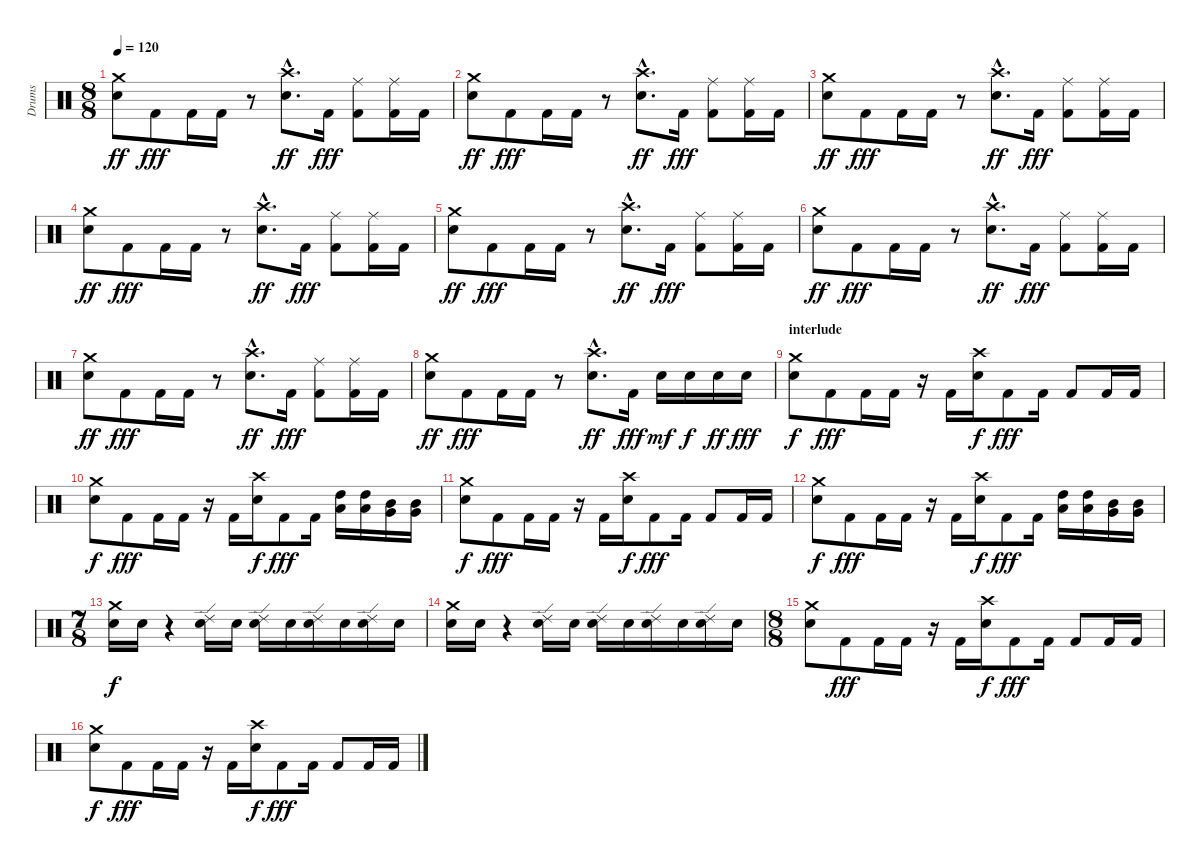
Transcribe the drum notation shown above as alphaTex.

\track ("Drums" "Drums") {instrument percussion}
\staff {score}
\articulation defaults
\ts (8 8)
\tempo 120
\clef neutral
\ks c
("Crash medium (hit)" "Electric Snare (hit)").8{dy ff} "Kick (hit) 2".8{dy fff} "Kick (hit) 2".16 "Kick (hit) 2".16 r.8 ("Crash high (hit)"{hac} "Electric Snare (hit)"{hac}).8{d dy ff} "Kick (hit) 2".16{dy fff} ("Ride (middle)" "Kick (hit) 2").8 ("Ride (middle)" "Kick (hit) 2").16 "Kick (hit) 2".16 |
("Crash medium (hit)" "Electric Snare (hit)").8{dy ff} "Kick (hit) 2".8{dy fff} "Kick (hit) 2".16 "Kick (hit) 2".16 r.8 ("Crash high (hit)"{hac} "Electric Snare (hit)"{hac}).8{d dy ff} "Kick (hit) 2".16{dy fff} ("Ride (middle)" "Kick (hit) 2").8 ("Ride (middle)" "Kick (hit) 2").16 "Kick (hit) 2".16 |
("Crash medium (hit)" "Electric Snare (hit)").8{dy ff} "Kick (hit) 2".8{dy fff} "Kick (hit) 2".16 "Kick (hit) 2".16 r.8 ("Crash high (hit)"{hac} "Electric Snare (hit)"{hac}).8{d dy ff} "Kick (hit) 2".16{dy fff} ("Ride (middle)" "Kick (hit) 2").8 ("Ride (middle)" "Kick (hit) 2").16 "Kick (hit) 2".16 |
("Crash medium (hit)" "Electric Snare (hit)").8{dy ff} "Kick (hit) 2".8{dy fff} "Kick (hit) 2".16 "Kick (hit) 2".16 r.8 ("Crash high (hit)"{hac} "Electric Snare (hit)"{hac}).8{d dy ff} "Kick (hit) 2".16{dy fff} ("Ride (middle)" "Kick (hit) 2").8 ("Ride (middle)" "Kick (hit) 2").16 "Kick (hit) 2".16 |
("Crash medium (hit)" "Electric Snare (hit)").8{dy ff} "Kick (hit) 2".8{dy fff} "Kick (hit) 2".16 "Kick (hit) 2".16 r.8 ("Crash high (hit)"{hac} "Electric Snare (hit)"{hac}).8{d dy ff} "Kick (hit) 2".16{dy fff} ("Ride (middle)" "Kick (hit) 2").8 ("Ride (middle)" "Kick (hit) 2").16 "Kick (hit) 2".16 |
("Crash medium (hit)" "Electric Snare (hit)").8{dy ff} "Kick (hit) 2".8{dy fff} "Kick (hit) 2".16 "Kick (hit) 2".16 r.8 ("Crash high (hit)"{hac} "Electric Snare (hit)"{hac}).8{d dy ff} "Kick (hit) 2".16{dy fff} ("Ride (middle)" "Kick (hit) 2").8 ("Ride (middle)" "Kick (hit) 2").16 "Kick (hit) 2".16 |
("Crash medium (hit)" "Electric Snare (hit)").8{dy ff} "Kick (hit) 2".8{dy fff} "Kick (hit) 2".16 "Kick (hit) 2".16 r.8 ("Crash high (hit)"{hac} "Electric Snare (hit)"{hac}).8{d dy ff} "Kick (hit) 2".16{dy fff} ("Ride (middle)" "Kick (hit) 2").8 ("Ride (middle)" "Kick (hit) 2").16 "Kick (hit) 2".16 |
("Crash medium (hit)" "Electric Snare (hit)").8{dy ff} "Kick (hit) 2".8{dy fff} "Kick (hit) 2".16 "Kick (hit) 2".16 r.8 ("Crash high (hit)"{hac} "Electric Snare (hit)"{hac}).8{d dy ff} "Kick (hit) 2".16{dy fff} "Electric Snare (hit)".16{dy mf} "Electric Snare (hit)".16{dy f} "Electric Snare (hit)".16{dy ff} "Electric Snare (hit)".16{dy fff} |
\section ("" "interlude")
("Electric Snare (hit)" "Crash medium (hit)").8{dy f} "Kick (hit) 2".8{dy fff} "Kick (hit) 2".16 "Kick (hit) 2".16 r.16 "Kick (hit) 2".16 ("Electric Snare (hit)" "Crash high (hit)").16{dy f} "Kick (hit) 2".8{dy fff} "Kick (hit) 2".16 "Kick (hit) 2".8 "Kick (hit) 2".16 "Kick (hit) 2".16 |
("Electric Snare (hit)" "Crash medium (hit)").8{dy f} "Kick (hit) 2".8{dy fff} "Kick (hit) 2".16 "Kick (hit) 2".16 r.16 "Kick (hit) 2".16 ("Electric Snare (hit)" "Crash high (hit)").16{dy f} "Kick (hit) 2".8{dy fff} "Kick (hit) 2".16 ("High Tom (hit)" "Low Tom (hit)").16 ("High Tom (hit)" "Low Tom (hit)").16 ("Mid Tom (hit)" "Very Low Tom (hit)").16 ("Mid Tom (hit)" "Very Low Tom (hit)").16 |
("Electric Snare (hit)" "Crash medium (hit)").8{dy f} "Kick (hit) 2".8{dy fff} "Kick (hit) 2".16 "Kick (hit) 2".16 r.16 "Kick (hit) 2".16 ("Electric Snare (hit)" "Crash high (hit)").16{dy f} "Kick (hit) 2".8{dy fff} "Kick (hit) 2".16 "Kick (hit) 2".8 "Kick (hit) 2".16 "Kick (hit) 2".16 |
("Electric Snare (hit)" "Crash medium (hit)").8{dy f} "Kick (hit) 2".8{dy fff} "Kick (hit) 2".16 "Kick (hit) 2".16 r.16 "Kick (hit) 2".16 ("Electric Snare (hit)" "Crash high (hit)").16{dy f} "Kick (hit) 2".8{dy fff} "Kick (hit) 2".16 ("High Tom (hit)" "Low Tom (hit)").16 ("High Tom (hit)" "Low Tom (hit)").16 ("Mid Tom (hit)" "Very Low Tom (hit)").16 ("Mid Tom (hit)" "Very Low Tom (hit)").16 |
\ts (7 8)
("Snare (hit) 2" "Crash medium (hit)").16{dy f} "Snare (hit) 2".16 r.4 ("Electric Snare (hit)" "Ride (edge) 2").16 "Electric Snare (hit)".16 ("Snare (hit) 2" "Ride (edge) 2").16 "Snare (hit) 2".16 ("Electric Snare (hit)" "Ride (edge) 2").16 "Electric Snare (hit)".16 ("Snare (hit) 2" "Ride (edge) 2").16 "Snare (hit) 2".16 |
("Snare (hit) 2" "Crash medium (hit)").16 "Snare (hit) 2".16 r.4 ("Electric Snare (hit)" "Ride (edge) 2").16 "Electric Snare (hit)".16 ("Snare (hit) 2" "Ride (edge) 2").16 "Snare (hit) 2".16 ("Electric Snare (hit)" "Ride (edge) 2").16 "Electric Snare (hit)".16 ("Snare (hit) 2" "Ride (edge) 2").16 "Snare (hit) 2".16 |
\ts (8 8)
("Electric Snare (hit)" "Crash medium (hit)").8 "Kick (hit) 2".8{dy fff} "Kick (hit) 2".16 "Kick (hit) 2".16 r.16 "Kick (hit) 2".16 ("Electric Snare (hit)" "Crash high (hit)").16{dy f} "Kick (hit) 2".8{dy fff} "Kick (hit) 2".16 "Kick (hit) 2".8 "Kick (hit) 2".16 "Kick (hit) 2".16 |
("Electric Snare (hit)" "Crash medium (hit)").8{dy f} "Kick (hit) 2".8{dy fff} "Kick (hit) 2".16 "Kick (hit) 2".16 r.16 "Kick (hit) 2".16 ("Electric Snare (hit)" "Crash high (hit)").16{dy f} "Kick (hit) 2".8{dy fff} "Kick (hit) 2".16 "Kick (hit) 2".8 "Kick (hit) 2".16 "Kick (hit) 2".16
